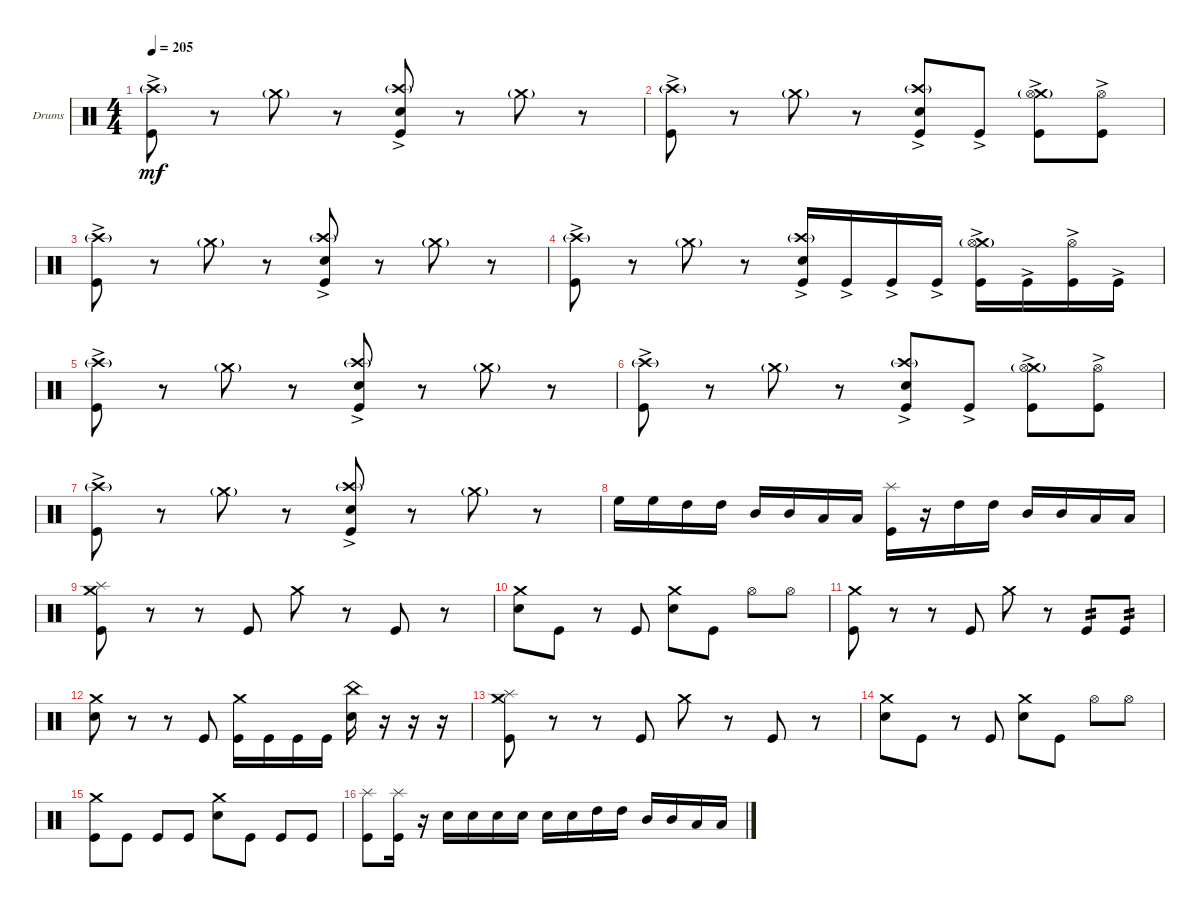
\defaultSystemsLayout 4
\bracketExtendMode groupsimilarinstruments
\firstSystemTrackNameOrientation horizontal
\otherSystemsTrackNameOrientation horizontal
\track ("Drumkit" "Drums") {instrument percussion}
\staff {score}
\articulation defaults
\ts (4 4)
\tempo 205
\clef neutral
\ks c
("Kick (hit)"{ac} "Crash high (hit)"{g}).8{dy mf} r.8 "Crash medium (hit)"{g}.8 r.8 ("Snare (hit) 2"{ac} "Crash high (hit)"{g} "Kick (hit)"{ac}).8 r.8 "Crash medium (hit)"{g}.8 r.8 |
("Kick (hit)"{ac} "Crash high (hit)"{g}).8 r.8 "Crash medium (hit)"{g}.8 r.8 ("Snare (hit) 2"{ac} "Crash high (hit)"{g} "Kick (hit)"{ac}).8 "Kick (hit)"{ac}.8 ("Crash medium (hit)" "Kick (hit)"{ac} "Hi-Hat (open)"{g}).8 ("Kick (hit)"{ac} "Hi-Hat (open)").8 |
("Kick (hit)"{ac} "Crash high (hit)"{g}).8 r.8 "Crash medium (hit)"{g}.8 r.8 ("Snare (hit) 2"{ac} "Crash high (hit)"{g} "Kick (hit)"{ac}).8 r.8 "Crash medium (hit)"{g}.8 r.8 |
("Kick (hit)"{ac} "Crash high (hit)"{g}).8 r.8 "Crash medium (hit)"{g}.8 r.8 ("Kick (hit)"{ac} "Snare (hit) 2"{ac} "Crash high (hit)"{g}).16 "Kick (hit)"{ac}.16 "Kick (hit)"{ac}.16 "Kick (hit)"{ac}.16 ("Kick (hit)"{ac} "Crash medium (hit)" "Hi-Hat (open)"{g}).16 "Kick (hit)"{ac}.16 ("Kick (hit)"{ac} "Hi-Hat (open)").16 "Kick (hit)"{ac}.16 |
("Kick (hit)"{ac} "Crash high (hit)"{g}).8 r.8 "Crash medium (hit)"{g}.8 r.8 ("Snare (hit) 2"{ac} "Crash high (hit)"{g} "Kick (hit)"{ac}).8 r.8 "Crash medium (hit)"{g}.8 r.8 |
("Kick (hit)"{ac} "Crash high (hit)"{g}).8 r.8 "Crash medium (hit)"{g}.8 r.8 ("Snare (hit) 2"{ac} "Crash high (hit)"{g} "Kick (hit)"{ac}).8 "Kick (hit)"{ac}.8 ("Crash medium (hit)" "Kick (hit)"{ac} "Hi-Hat (open)"{g}).8 ("Kick (hit)"{ac} "Hi-Hat (open)").8 |
("Kick (hit)"{ac} "Crash high (hit)"{g}).8 r.8 "Crash medium (hit)"{g}.8 r.8 ("Snare (hit) 2"{ac} "Crash high (hit)"{g} "Kick (hit)"{ac}).8 r.8 "Crash medium (hit)"{g}.8 r.8 |
"High Floor Tom (hit)".16 "High Floor Tom (hit)".16 "High Tom (hit)".16 "High Tom (hit)".16 "Mid Tom (hit)".16 "Mid Tom (hit)".16 "Low Tom (hit)".16 "Low Tom (hit)".16 ("Kick (hit)" "Splash (hit)").16 r.16 "High Tom (hit)".16 "High Tom (hit)".16 "Mid Tom (hit)".16 "Mid Tom (hit)".16 "Low Tom (hit)".16 "Low Tom (hit)".16 |
("Kick (hit)" "Crash medium (hit)" "Splash (hit)").8 r.8 r.8 "Kick (hit)".8 "Crash medium (hit)".8 r.8 "Kick (hit)".8 r.8 |
("Snare (hit) 2" "Crash medium (hit)").8 "Kick (hit)".8 r.8 "Kick (hit)".8 ("Snare (hit) 2" "Crash medium (hit)").8 "Kick (hit)".8 "Hi-Hat (open)".8 "Hi-Hat (open)".8 |
("Kick (hit)" "Crash medium (hit)").8 r.8 r.8 "Kick (hit)".8 "Crash medium (hit)".8 r.8 "Kick (hit)".8{tp 2} "Kick (hit)".8{tp 2} |
("Snare (hit) 2" "Crash medium (hit)").8 r.8 r.8 "Kick (hit)".8 ("Kick (hit)" "Crash medium (hit)").16 "Kick (hit)".16 "Kick (hit)".16 "Kick (hit)".16 ("Snare (hit) 2" "China (hit)").16 r.16 r.16 r.16 |
("Kick (hit)" "Crash medium (hit)" "Splash (hit)").8 r.8 r.8 "Kick (hit)".8 "Crash medium (hit)".8 r.8 "Kick (hit)".8 r.8 |
("Snare (hit) 2" "Crash medium (hit)").8 "Kick (hit)".8 r.8 "Kick (hit)".8 ("Snare (hit) 2" "Crash medium (hit)").8 "Kick (hit)".8 "Hi-Hat (open)".8 "Hi-Hat (open)".8 |
("Kick (hit)" "Crash medium (hit)").8 "Kick (hit)".8 "Kick (hit)".8 "Kick (hit)".8 ("Snare (hit) 2" "Crash medium (hit)").8 "Kick (hit)".8 "Kick (hit)".8 "Kick (hit)".8 |
("Kick (hit)" "Splash (hit)").8 ("Kick (hit)" "Splash (hit)").16 r.16 "Snare (hit) 2".16 "Snare (hit) 2".16 "Snare (hit) 2".16 "Snare (hit) 2".16 "Snare (hit) 2".16 "Snare (hit) 2".16 "High Tom (hit)".16 "High Tom (hit)".16 "Mid Tom (hit)".16 "Mid Tom (hit)".16 "Low Tom (hit)".16 "Low Tom (hit)".16
